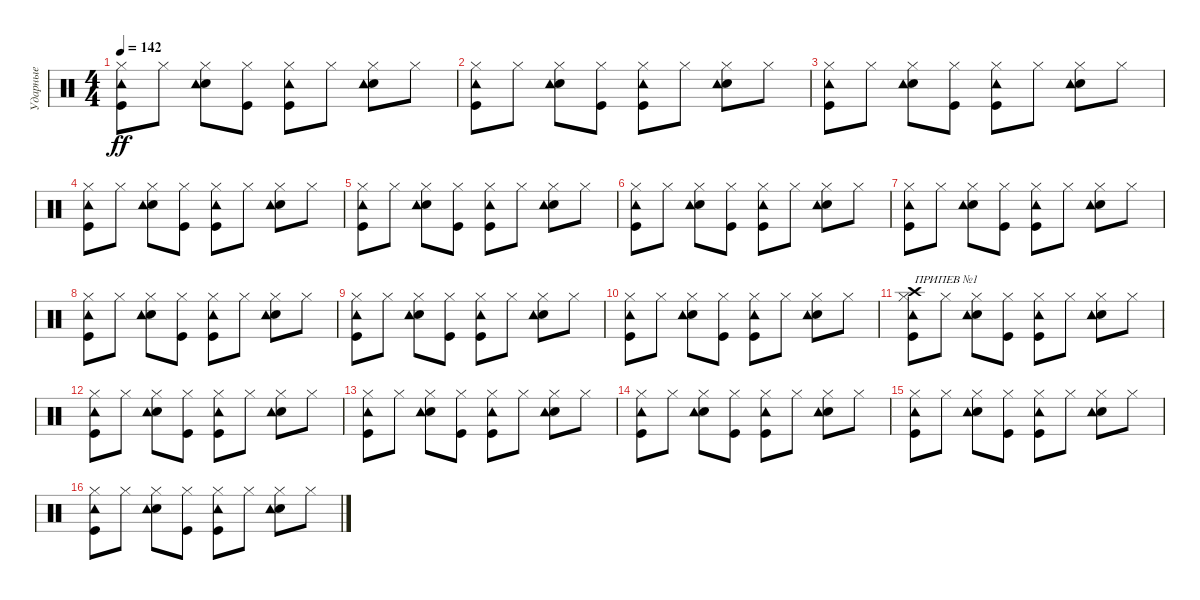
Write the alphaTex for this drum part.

\track ("Ударные" "Ударные") {instrument percussion}
\staff {score}
\articulation defaults
\ts (4 4)
\tempo 142
\clef neutral
\ks c
("Hi-Hat (closed)" "Kick (hit)" "Tambourine (hit)").8{dy ff} "Hi-Hat (closed)".8 ("Hi-Hat (closed)" "Electric Snare (hit)" "Tambourine (hit)").8 ("Hi-Hat (closed)" "Kick (hit)").8 ("Hi-Hat (closed)" "Tambourine (hit)" "Kick (hit)").8 "Hi-Hat (closed)".8 ("Hi-Hat (closed)" "Electric Snare (hit)" "Tambourine (hit)").8 "Hi-Hat (closed)".8 |
("Hi-Hat (closed)" "Kick (hit)" "Tambourine (hit)").8 "Hi-Hat (closed)".8 ("Hi-Hat (closed)" "Electric Snare (hit)" "Tambourine (hit)").8 ("Hi-Hat (closed)" "Kick (hit)").8 ("Hi-Hat (closed)" "Tambourine (hit)" "Kick (hit)").8 "Hi-Hat (closed)".8 ("Hi-Hat (closed)" "Electric Snare (hit)" "Tambourine (hit)").8 "Hi-Hat (closed)".8 |
("Hi-Hat (closed)" "Kick (hit)" "Tambourine (hit)").8 "Hi-Hat (closed)".8 ("Hi-Hat (closed)" "Electric Snare (hit)" "Tambourine (hit)").8 ("Hi-Hat (closed)" "Kick (hit)").8 ("Hi-Hat (closed)" "Tambourine (hit)" "Kick (hit)").8 "Hi-Hat (closed)".8 ("Hi-Hat (closed)" "Electric Snare (hit)" "Tambourine (hit)").8 "Hi-Hat (closed)".8 |
("Hi-Hat (closed)" "Kick (hit)" "Tambourine (hit)").8 "Hi-Hat (closed)".8 ("Hi-Hat (closed)" "Electric Snare (hit)" "Tambourine (hit)").8 ("Hi-Hat (closed)" "Kick (hit)").8 ("Hi-Hat (closed)" "Tambourine (hit)" "Kick (hit)").8 "Hi-Hat (closed)".8 ("Hi-Hat (closed)" "Electric Snare (hit)" "Tambourine (hit)").8 "Hi-Hat (closed)".8 |
("Hi-Hat (closed)" "Kick (hit)" "Tambourine (hit)").8 "Hi-Hat (closed)".8 ("Hi-Hat (closed)" "Electric Snare (hit)" "Tambourine (hit)").8 ("Hi-Hat (closed)" "Kick (hit)").8 ("Hi-Hat (closed)" "Tambourine (hit)" "Kick (hit)").8 "Hi-Hat (closed)".8 ("Hi-Hat (closed)" "Electric Snare (hit)" "Tambourine (hit)").8 "Hi-Hat (closed)".8 |
("Hi-Hat (closed)" "Kick (hit)" "Tambourine (hit)").8 "Hi-Hat (closed)".8 ("Hi-Hat (closed)" "Electric Snare (hit)" "Tambourine (hit)").8 ("Hi-Hat (closed)" "Kick (hit)").8 ("Hi-Hat (closed)" "Tambourine (hit)" "Kick (hit)").8 "Hi-Hat (closed)".8 ("Hi-Hat (closed)" "Electric Snare (hit)" "Tambourine (hit)").8 "Hi-Hat (closed)".8 |
("Hi-Hat (closed)" "Kick (hit)" "Tambourine (hit)").8 "Hi-Hat (closed)".8 ("Hi-Hat (closed)" "Electric Snare (hit)" "Tambourine (hit)").8 ("Hi-Hat (closed)" "Kick (hit)").8 ("Hi-Hat (closed)" "Tambourine (hit)" "Kick (hit)").8 "Hi-Hat (closed)".8 ("Hi-Hat (closed)" "Electric Snare (hit)" "Tambourine (hit)").8 "Hi-Hat (closed)".8 |
("Hi-Hat (closed)" "Kick (hit)" "Tambourine (hit)").8 "Hi-Hat (closed)".8 ("Hi-Hat (closed)" "Electric Snare (hit)" "Tambourine (hit)").8 ("Hi-Hat (closed)" "Kick (hit)").8 ("Hi-Hat (closed)" "Tambourine (hit)" "Kick (hit)").8 "Hi-Hat (closed)".8 ("Hi-Hat (closed)" "Electric Snare (hit)" "Tambourine (hit)").8 "Hi-Hat (closed)".8 |
("Hi-Hat (closed)" "Kick (hit)" "Tambourine (hit)").8 "Hi-Hat (closed)".8 ("Hi-Hat (closed)" "Electric Snare (hit)" "Tambourine (hit)").8 ("Hi-Hat (closed)" "Kick (hit)").8 ("Hi-Hat (closed)" "Tambourine (hit)" "Kick (hit)").8 "Hi-Hat (closed)".8 ("Hi-Hat (closed)" "Electric Snare (hit)" "Tambourine (hit)").8 "Hi-Hat (closed)".8 |
("Hi-Hat (closed)" "Kick (hit)" "Tambourine (hit)").8 "Hi-Hat (closed)".8 ("Hi-Hat (closed)" "Electric Snare (hit)" "Tambourine (hit)").8 ("Hi-Hat (closed)" "Kick (hit)").8 ("Hi-Hat (closed)" "Tambourine (hit)" "Kick (hit)").8 "Hi-Hat (closed)".8 ("Hi-Hat (closed)" "Electric Snare (hit)" "Tambourine (hit)").8 "Hi-Hat (closed)".8 |
("Crash high (hit)" "Hi-Hat (closed)" "Kick (hit)" "Tambourine (hit)").8{txt "ПРИПЕВ №1"} "Hi-Hat (closed)".8 ("Hi-Hat (closed)" "Electric Snare (hit)" "Tambourine (hit)").8 ("Hi-Hat (closed)" "Kick (hit)").8 ("Hi-Hat (closed)" "Tambourine (hit)" "Kick (hit)").8 "Hi-Hat (closed)".8 ("Hi-Hat (closed)" "Electric Snare (hit)" "Tambourine (hit)").8 "Hi-Hat (closed)".8 |
("Hi-Hat (closed)" "Kick (hit)" "Tambourine (hit)").8 "Hi-Hat (closed)".8 ("Hi-Hat (closed)" "Electric Snare (hit)" "Tambourine (hit)").8 ("Hi-Hat (closed)" "Kick (hit)").8 ("Hi-Hat (closed)" "Tambourine (hit)" "Kick (hit)").8 "Hi-Hat (closed)".8 ("Hi-Hat (closed)" "Electric Snare (hit)" "Tambourine (hit)").8 "Hi-Hat (closed)".8 |
("Hi-Hat (closed)" "Kick (hit)" "Tambourine (hit)").8 "Hi-Hat (closed)".8 ("Hi-Hat (closed)" "Electric Snare (hit)" "Tambourine (hit)").8 ("Hi-Hat (closed)" "Kick (hit)").8 ("Hi-Hat (closed)" "Tambourine (hit)" "Kick (hit)").8 "Hi-Hat (closed)".8 ("Hi-Hat (closed)" "Electric Snare (hit)" "Tambourine (hit)").8 "Hi-Hat (closed)".8 |
("Hi-Hat (closed)" "Kick (hit)" "Tambourine (hit)").8 "Hi-Hat (closed)".8 ("Hi-Hat (closed)" "Electric Snare (hit)" "Tambourine (hit)").8 ("Hi-Hat (closed)" "Kick (hit)").8 ("Hi-Hat (closed)" "Tambourine (hit)" "Kick (hit)").8 "Hi-Hat (closed)".8 ("Hi-Hat (closed)" "Electric Snare (hit)" "Tambourine (hit)").8 "Hi-Hat (closed)".8 |
("Hi-Hat (closed)" "Kick (hit)" "Tambourine (hit)").8 "Hi-Hat (closed)".8 ("Hi-Hat (closed)" "Electric Snare (hit)" "Tambourine (hit)").8 ("Hi-Hat (closed)" "Kick (hit)").8 ("Hi-Hat (closed)" "Tambourine (hit)" "Kick (hit)").8 "Hi-Hat (closed)".8 ("Hi-Hat (closed)" "Electric Snare (hit)" "Tambourine (hit)").8 "Hi-Hat (closed)".8 |
("Hi-Hat (closed)" "Kick (hit)" "Tambourine (hit)").8 "Hi-Hat (closed)".8 ("Hi-Hat (closed)" "Electric Snare (hit)" "Tambourine (hit)").8 ("Hi-Hat (closed)" "Kick (hit)").8 ("Hi-Hat (closed)" "Tambourine (hit)" "Kick (hit)").8 "Hi-Hat (closed)".8 ("Hi-Hat (closed)" "Electric Snare (hit)" "Tambourine (hit)").8 "Hi-Hat (closed)".8
